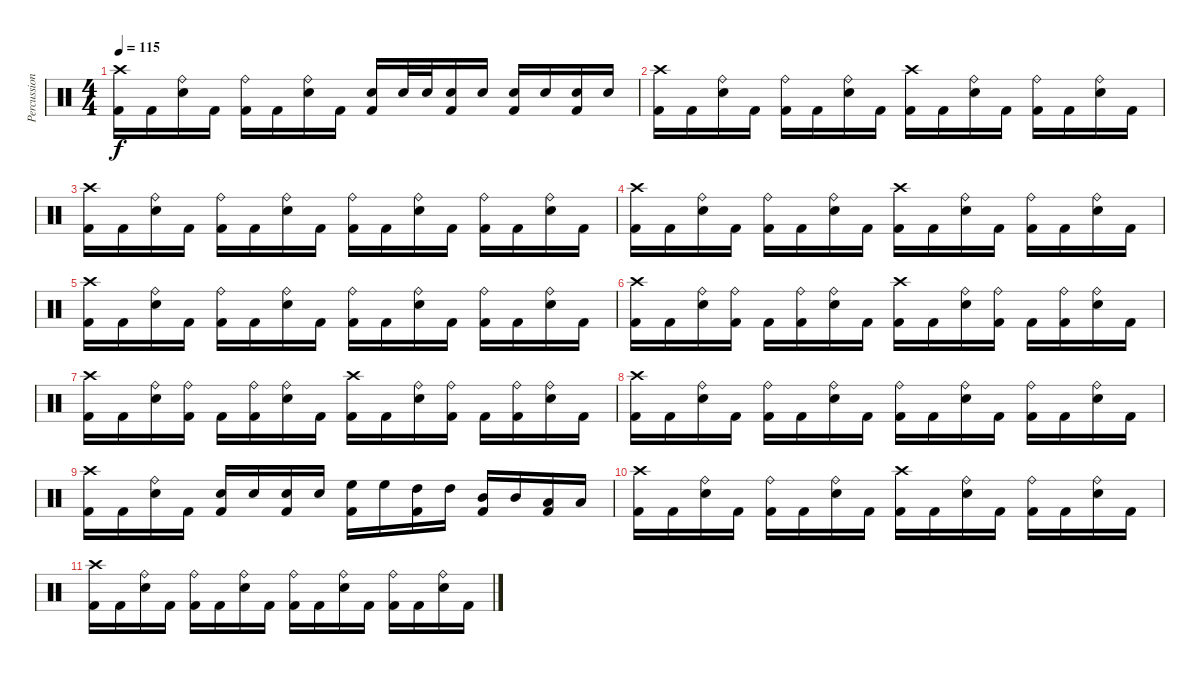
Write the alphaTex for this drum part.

\track ("Percussion" "Percussion") {instrument percussion}
\staff {score}
\articulation defaults
\ts (4 4)
\tempo 115
\clef neutral
\ks c
("Kick (hit) 2" "Crash high (hit)").16{dy f} "Kick (hit) 2".16 ("Electric Snare (hit)" "Ride (bell)").16 "Kick (hit) 2".16 ("Kick (hit) 2" "Ride (bell)").16 "Kick (hit) 2".16 ("Electric Snare (hit)" "Ride (bell)").16 "Kick (hit) 2".16 ("Electric Snare (hit)" "Kick (hit) 2").16 "Electric Snare (hit)".32 "Electric Snare (hit)".32 ("Electric Snare (hit)" "Kick (hit) 2").16 "Electric Snare (hit)".16 ("Electric Snare (hit)" "Kick (hit) 2").16 "Electric Snare (hit)".16 ("Electric Snare (hit)" "Kick (hit) 2").16 "Electric Snare (hit)".16 |
("Kick (hit) 2" "Crash high (hit)").16{volume 11} "Kick (hit) 2".16 ("Electric Snare (hit)" "Ride (bell)").16 "Kick (hit) 2".16 ("Kick (hit) 2" "Ride (bell)").16 "Kick (hit) 2".16 ("Electric Snare (hit)" "Ride (bell)").16 "Kick (hit) 2".16 ("Kick (hit) 2" "Crash high (hit)").16 "Kick (hit) 2".16 ("Electric Snare (hit)" "Ride (bell)").16 "Kick (hit) 2".16 ("Kick (hit) 2" "Ride (bell)").16 "Kick (hit) 2".16 ("Electric Snare (hit)" "Ride (bell)").16 "Kick (hit) 2".16 |
("Kick (hit) 2" "Crash high (hit)").16{volume 9} "Kick (hit) 2".16 ("Electric Snare (hit)" "Ride (bell)").16 "Kick (hit) 2".16 ("Kick (hit) 2" "Ride (bell)").16 "Kick (hit) 2".16 ("Electric Snare (hit)" "Ride (bell)").16 "Kick (hit) 2".16 ("Kick (hit) 2" "Ride (bell)").16 "Kick (hit) 2".16 ("Electric Snare (hit)" "Ride (bell)").16 "Kick (hit) 2".16 ("Kick (hit) 2" "Ride (bell)").16 "Kick (hit) 2".16 ("Electric Snare (hit)" "Ride (bell)").16 "Kick (hit) 2".16 |
("Kick (hit) 2" "Crash high (hit)").16{volume 7} "Kick (hit) 2".16 ("Electric Snare (hit)" "Ride (bell)").16 "Kick (hit) 2".16 ("Kick (hit) 2" "Ride (bell)").16 "Kick (hit) 2".16 ("Electric Snare (hit)" "Ride (bell)").16 "Kick (hit) 2".16 ("Kick (hit) 2" "Crash high (hit)").16 "Kick (hit) 2".16 ("Electric Snare (hit)" "Ride (bell)").16 "Kick (hit) 2".16 ("Kick (hit) 2" "Ride (bell)").16 "Kick (hit) 2".16 ("Electric Snare (hit)" "Ride (bell)").16 "Kick (hit) 2".16 |
("Kick (hit) 2" "Crash high (hit)").16{volume 5} "Kick (hit) 2".16 ("Electric Snare (hit)" "Ride (bell)").16 "Kick (hit) 2".16 ("Kick (hit) 2" "Ride (bell)").16 "Kick (hit) 2".16 ("Electric Snare (hit)" "Ride (bell)").16 "Kick (hit) 2".16 ("Kick (hit) 2" "Ride (bell)").16 "Kick (hit) 2".16 ("Electric Snare (hit)" "Ride (bell)").16 "Kick (hit) 2".16 ("Kick (hit) 2" "Ride (bell)").16 "Kick (hit) 2".16 ("Electric Snare (hit)" "Ride (bell)").16 "Kick (hit) 2".16 |
("Kick (hit) 2" "Crash high (hit)").16{volume 4} "Kick (hit) 2".16 ("Electric Snare (hit)" "Ride (bell)").16 ("Kick (hit) 2" "Ride (bell)").16 "Kick (hit) 2".16 ("Kick (hit) 2" "Ride (bell)").16 ("Electric Snare (hit)" "Ride (bell)").16 "Kick (hit) 2".16 ("Kick (hit) 2" "Crash high (hit)").16 "Kick (hit) 2".16 ("Electric Snare (hit)" "Ride (bell)").16 ("Kick (hit) 2" "Ride (bell)").16 "Kick (hit) 2".16 ("Kick (hit) 2" "Ride (bell)").16 ("Electric Snare (hit)" "Ride (bell)").16 "Kick (hit) 2".16 |
("Kick (hit) 2" "Crash high (hit)").16{volume 3} "Kick (hit) 2".16 ("Electric Snare (hit)" "Ride (bell)").16 ("Kick (hit) 2" "Ride (bell)").16 "Kick (hit) 2".16 ("Kick (hit) 2" "Ride (bell)").16 ("Electric Snare (hit)" "Ride (bell)").16 "Kick (hit) 2".16 ("Kick (hit) 2" "Crash high (hit)").16 "Kick (hit) 2".16 ("Electric Snare (hit)" "Ride (bell)").16 ("Kick (hit) 2" "Ride (bell)").16 "Kick (hit) 2".16 ("Kick (hit) 2" "Ride (bell)").16 ("Electric Snare (hit)" "Ride (bell)").16 "Kick (hit) 2".16 |
("Kick (hit) 2" "Crash high (hit)").16{volume 2} "Kick (hit) 2".16 ("Electric Snare (hit)" "Ride (bell)").16 "Kick (hit) 2".16 ("Kick (hit) 2" "Ride (bell)").16 "Kick (hit) 2".16 ("Electric Snare (hit)" "Ride (bell)").16 "Kick (hit) 2".16 ("Kick (hit) 2" "Ride (bell)").16 "Kick (hit) 2".16 ("Electric Snare (hit)" "Ride (bell)").16 "Kick (hit) 2".16 ("Kick (hit) 2" "Ride (bell)").16 "Kick (hit) 2".16 ("Electric Snare (hit)" "Ride (bell)").16 "Kick (hit) 2".16 |
("Kick (hit) 2" "Crash high (hit)").16{volume 1} "Kick (hit) 2".16 ("Electric Snare (hit)" "Ride (bell)").16 "Kick (hit) 2".16 ("Electric Snare (hit)" "Kick (hit) 2").16 "Electric Snare (hit)".16 ("Electric Snare (hit)" "Kick (hit) 2").16 "Electric Snare (hit)".16 ("High Floor Tom (hit)" "Kick (hit) 2").16 "High Floor Tom (hit)".16 ("High Tom (hit)" "Kick (hit) 2").16 "High Tom (hit)".16 ("Mid Tom (hit)" "Kick (hit) 2").16 "Mid Tom (hit)".16 ("Low Tom (hit)" "Kick (hit) 2").16 "Low Tom (hit)".16 |
("Kick (hit) 2" "Crash high (hit)").16 "Kick (hit) 2".16 ("Electric Snare (hit)" "Ride (bell)").16 "Kick (hit) 2".16 ("Kick (hit) 2" "Ride (bell)").16 "Kick (hit) 2".16 ("Electric Snare (hit)" "Ride (bell)").16 "Kick (hit) 2".16 ("Kick (hit) 2" "Crash high (hit)").16 "Kick (hit) 2".16 ("Electric Snare (hit)" "Ride (bell)").16 "Kick (hit) 2".16 ("Kick (hit) 2" "Ride (bell)").16 "Kick (hit) 2".16 ("Electric Snare (hit)" "Ride (bell)").16 "Kick (hit) 2".16 |
("Kick (hit) 2" "Crash high (hit)").16 "Kick (hit) 2".16 ("Electric Snare (hit)" "Ride (bell)").16 "Kick (hit) 2".16 ("Kick (hit) 2" "Ride (bell)").16 "Kick (hit) 2".16 ("Electric Snare (hit)" "Ride (bell)").16 "Kick (hit) 2".16 ("Kick (hit) 2" "Ride (bell)").16 "Kick (hit) 2".16 ("Electric Snare (hit)" "Ride (bell)").16 "Kick (hit) 2".16 ("Kick (hit) 2" "Ride (bell)").16 "Kick (hit) 2".16 ("Electric Snare (hit)" "Ride (bell)").16 "Kick (hit) 2".16
